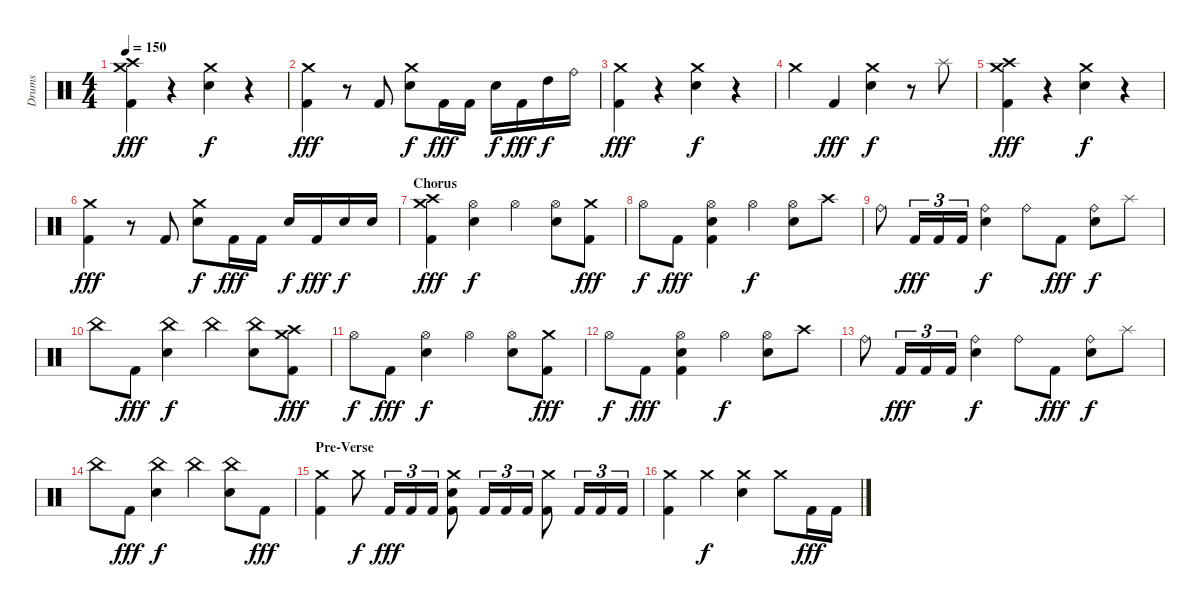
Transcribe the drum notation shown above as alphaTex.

\track ("Drums" "Drums") {instrument percussion}
\staff {score}
\articulation defaults
\ts (4 4)
\tempo 150
\clef neutral
\ks c
("Crash medium (hit)" "Crash high (hit)" "Kick (hit) 2").4{dy fff} r.4 ("Crash medium (hit)" "Snare (hit) 2").4{dy f} r.4 |
("Crash medium (hit)" "Kick (hit) 2").4{dy fff} r.8 "Kick (hit) 2".8 ("Crash medium (hit)" "Snare (hit) 2").8{dy f} "Kick (hit) 2".16{dy fff} "Kick (hit) 2".16 "Snare (hit) 2".16{dy f} "Kick (hit) 2".16{dy fff} "High Tom (hit)".16{dy f} "Ride (bell)".16 |
("Crash medium (hit)" "Kick (hit) 2").4{dy fff} r.4 ("Crash medium (hit)" "Snare (hit) 2").4{dy f} r.4 |
"Crash medium (hit)".4 "Kick (hit) 2".4{dy fff} ("Crash medium (hit)" "Snare (hit) 2").4{dy f} r.8 "Splash (hit)".8 |
("Crash medium (hit)" "Crash high (hit)" "Kick (hit) 2").4{dy fff} r.4 ("Crash medium (hit)" "Snare (hit) 2").4{dy f} r.4 |
("Crash medium (hit)" "Kick (hit) 2").4{dy fff} r.8 "Kick (hit) 2".8 ("Crash medium (hit)" "Snare (hit) 2").8{dy f} "Kick (hit) 2".16{dy fff} "Kick (hit) 2".16 "Snare (hit) 2".16{dy f} "Kick (hit) 2".16{dy fff} "Snare (hit) 2".16{dy f} "Snare (hit) 2".16 |
\section ("" "Chorus")
("Crash medium (hit)" "Crash high (hit)" "Kick (hit) 2").4{dy fff} ("Hi-Hat (open)" "Snare (hit) 2").4{dy f} "Hi-Hat (open)".4 ("Hi-Hat (open)" "Snare (hit) 2").8 ("Crash medium (hit)" "Kick (hit) 2").8{dy fff} |
"Hi-Hat (open)".8{dy f} "Kick (hit) 2".8{dy fff} ("Hi-Hat (open)" "Snare (hit) 2" "Kick (hit) 2").4 "Hi-Hat (open)".4{dy f} ("Hi-Hat (open)" "Snare (hit) 2").8 "Crash high (hit)".8 |
"Ride (bell)".8 "Kick (hit) 2".16{tu (3 2) dy fff} "Kick (hit) 2".16{tu (3 2)} "Kick (hit) 2".16{tu (3 2)} ("Ride (bell)" "Snare (hit) 2").4{dy f} "Ride (bell)".8 "Kick (hit) 2".8{dy fff} ("Ride (bell)" "Snare (hit) 2").8{dy f} "Splash (hit)".8 |
"China (hit)".8 "Kick (hit) 2".8{dy fff} ("China (hit)" "Snare (hit) 2").4{dy f} "China (hit)".4 ("China (hit)" "Snare (hit) 2").8 ("Crash medium (hit)" "Crash high (hit)" "Kick (hit) 2").8{dy fff} |
"Hi-Hat (open)".8{dy f} "Kick (hit) 2".8{dy fff} ("Hi-Hat (open)" "Snare (hit) 2").4{dy f} "Hi-Hat (open)".4 ("Hi-Hat (open)" "Snare (hit) 2").8 ("Crash medium (hit)" "Kick (hit) 2").8{dy fff} |
"Hi-Hat (open)".8{dy f} "Kick (hit) 2".8{dy fff} ("Hi-Hat (open)" "Snare (hit) 2" "Kick (hit) 2").4 "Hi-Hat (open)".4{dy f} ("Hi-Hat (open)" "Snare (hit) 2").8 "Crash high (hit)".8 |
"Ride (bell)".8 "Kick (hit) 2".16{tu (3 2) dy fff} "Kick (hit) 2".16{tu (3 2)} "Kick (hit) 2".16{tu (3 2)} ("Ride (bell)" "Snare (hit) 2").4{dy f} "Ride (bell)".8 "Kick (hit) 2".8{dy fff} ("Ride (bell)" "Snare (hit) 2").8{dy f} "Splash (hit)".8 |
"China (hit)".8 "Kick (hit) 2".8{dy fff} ("China (hit)" "Snare (hit) 2").4{dy f} "China (hit)".4 ("China (hit)" "Snare (hit) 2").8 "Kick (hit) 2".8{dy fff} |
\section ("" "Pre-Verse")
("Crash medium (hit)" "Kick (hit) 2").4 "Crash medium (hit)".8{dy f} "Kick (hit) 2".16{tu (3 2) dy fff} "Kick (hit) 2".16{tu (3 2)} "Kick (hit) 2".16{tu (3 2)} ("Crash medium (hit)" "Snare (hit) 2" "Kick (hit) 2").8 "Kick (hit) 2".16{tu (3 2)} "Kick (hit) 2".16{tu (3 2)} "Kick (hit) 2".16{tu (3 2)} ("Crash medium (hit)" "Kick (hit) 2").8 "Kick (hit) 2".16{tu (3 2)} "Kick (hit) 2".16{tu (3 2)} "Kick (hit) 2".16{tu (3 2)} |
("Crash medium (hit)" "Kick (hit) 2").4 "Crash medium (hit)".4{dy f} ("Crash medium (hit)" "Snare (hit) 2").4 "Crash medium (hit)".8 "Kick (hit) 2".16{dy fff} "Kick (hit) 2".16
